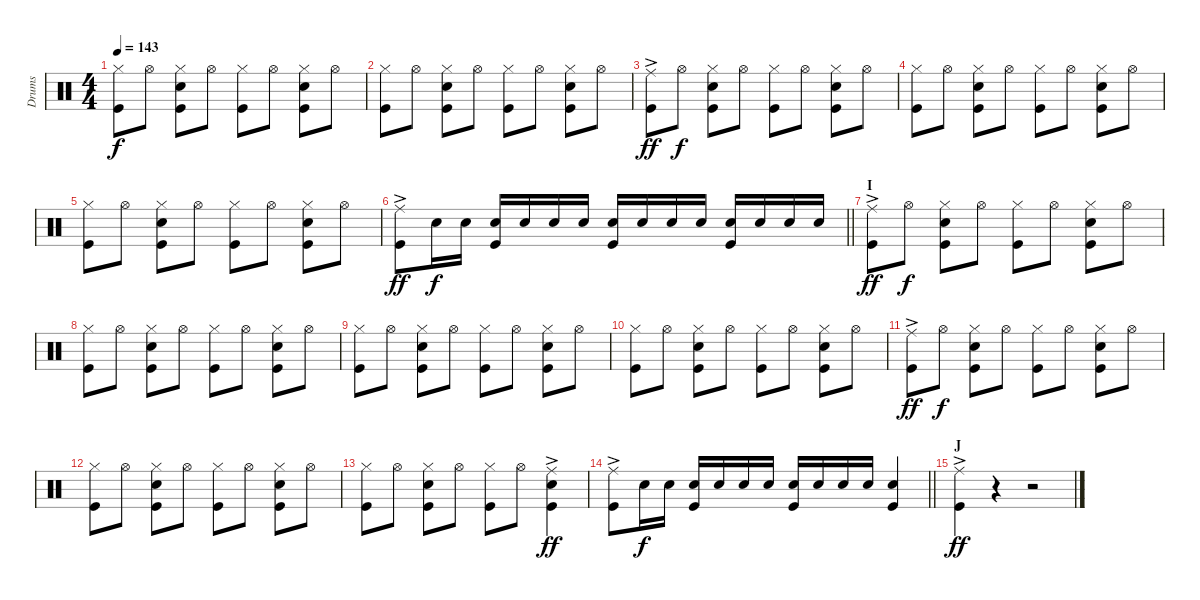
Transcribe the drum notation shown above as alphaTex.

\track ("Drums" "Drums") {instrument percussion}
\staff {score}
\articulation defaults
\ts (4 4)
\tempo 143
\clef neutral
\ks aminor
("Hi-Hat (closed)" "Kick (hit)").8{dy f} "Hi-Hat (open)".8 ("Hi-Hat (closed)" "Kick (hit)" "Snare (hit) 2").8 "Hi-Hat (open)".8 ("Hi-Hat (closed)" "Kick (hit)").8 "Hi-Hat (open)".8 ("Hi-Hat (closed)" "Kick (hit)" "Snare (hit) 2").8 "Hi-Hat (open)".8 |
("Hi-Hat (closed)" "Kick (hit)").8 "Hi-Hat (open)".8 ("Hi-Hat (closed)" "Kick (hit)" "Snare (hit) 2").8 "Hi-Hat (open)".8 ("Hi-Hat (closed)" "Kick (hit)").8 "Hi-Hat (open)".8 ("Hi-Hat (closed)" "Kick (hit)" "Snare (hit) 2").8 "Hi-Hat (open)".8 |
("Ride (middle)"{ac} "Kick (hit)").8{dy ff} "Hi-Hat (open)".8{dy f} ("Hi-Hat (closed)" "Kick (hit)" "Snare (hit) 2").8 "Hi-Hat (open)".8 ("Hi-Hat (closed)" "Kick (hit)").8 "Hi-Hat (open)".8 ("Hi-Hat (closed)" "Kick (hit)" "Snare (hit) 2").8 "Hi-Hat (open)".8 |
("Hi-Hat (closed)" "Kick (hit)").8 "Hi-Hat (open)".8 ("Hi-Hat (closed)" "Kick (hit)" "Snare (hit) 2").8 "Hi-Hat (open)".8 ("Hi-Hat (closed)" "Kick (hit)").8 "Hi-Hat (open)".8 ("Hi-Hat (closed)" "Kick (hit)" "Snare (hit) 2").8 "Hi-Hat (open)".8 |
("Hi-Hat (closed)" "Kick (hit)").8 "Hi-Hat (open)".8 ("Hi-Hat (closed)" "Kick (hit)" "Snare (hit) 2").8 "Hi-Hat (open)".8 ("Hi-Hat (closed)" "Kick (hit)").8 "Hi-Hat (open)".8 ("Hi-Hat (closed)" "Kick (hit)" "Snare (hit) 2").8 "Hi-Hat (open)".8 |
\barLineRight lightlight
("Ride (middle)"{ac} "Kick (hit)").8{dy ff} "Snare (hit) 2".16{dy f} "Snare (hit) 2".16 ("Kick (hit)" "Snare (hit) 2").16 "Snare (hit) 2".16 "Snare (hit) 2".16 "Snare (hit) 2".16 ("Kick (hit)" "Snare (hit) 2").16 "Snare (hit) 2".16 "Snare (hit) 2".16 "Snare (hit) 2".16 ("Kick (hit)" "Snare (hit) 2").16 "Snare (hit) 2".16 "Snare (hit) 2".16 "Snare (hit) 2".16 |
\section ("" "I")
("Ride (middle)"{ac} "Kick (hit)").8{dy ff} "Hi-Hat (open)".8{dy f} ("Hi-Hat (closed)" "Kick (hit)" "Snare (hit) 2").8 "Hi-Hat (open)".8 ("Hi-Hat (closed)" "Kick (hit)").8 "Hi-Hat (open)".8 ("Hi-Hat (closed)" "Kick (hit)" "Snare (hit) 2").8 "Hi-Hat (open)".8 |
("Hi-Hat (closed)" "Kick (hit)").8 "Hi-Hat (open)".8 ("Hi-Hat (closed)" "Kick (hit)" "Snare (hit) 2").8 "Hi-Hat (open)".8 ("Hi-Hat (closed)" "Kick (hit)").8 "Hi-Hat (open)".8 ("Hi-Hat (closed)" "Kick (hit)" "Snare (hit) 2").8 "Hi-Hat (open)".8 |
("Hi-Hat (closed)" "Kick (hit)").8 "Hi-Hat (open)".8 ("Hi-Hat (closed)" "Kick (hit)" "Snare (hit) 2").8 "Hi-Hat (open)".8 ("Hi-Hat (closed)" "Kick (hit)").8 "Hi-Hat (open)".8 ("Hi-Hat (closed)" "Kick (hit)" "Snare (hit) 2").8 "Hi-Hat (open)".8 |
("Hi-Hat (closed)" "Kick (hit)").8 "Hi-Hat (open)".8 ("Hi-Hat (closed)" "Kick (hit)" "Snare (hit) 2").8 "Hi-Hat (open)".8 ("Hi-Hat (closed)" "Kick (hit)").8 "Hi-Hat (open)".8 ("Hi-Hat (closed)" "Kick (hit)" "Snare (hit) 2").8 "Hi-Hat (open)".8 |
("Ride (middle)"{ac} "Kick (hit)").8{dy ff} "Hi-Hat (open)".8{dy f} ("Hi-Hat (closed)" "Kick (hit)" "Snare (hit) 2").8 "Hi-Hat (open)".8 ("Hi-Hat (closed)" "Kick (hit)").8 "Hi-Hat (open)".8 ("Hi-Hat (closed)" "Kick (hit)" "Snare (hit) 2").8 "Hi-Hat (open)".8 |
("Hi-Hat (closed)" "Kick (hit)").8 "Hi-Hat (open)".8 ("Hi-Hat (closed)" "Kick (hit)" "Snare (hit) 2").8 "Hi-Hat (open)".8 ("Hi-Hat (closed)" "Kick (hit)").8 "Hi-Hat (open)".8 ("Hi-Hat (closed)" "Kick (hit)" "Snare (hit) 2").8 "Hi-Hat (open)".8 |
("Hi-Hat (closed)" "Kick (hit)").8 "Hi-Hat (open)".8 ("Hi-Hat (closed)" "Kick (hit)" "Snare (hit) 2").8 "Hi-Hat (open)".8 ("Hi-Hat (closed)" "Kick (hit)").8 "Hi-Hat (open)".8 ("Ride (middle)"{ac} "Kick (hit)" "Snare (hit) 2").4{dy ff} |
\barLineRight lightlight
("Ride (middle)"{ac} "Kick (hit)").8 "Snare (hit) 2".16{dy f} "Snare (hit) 2".16 ("Kick (hit)" "Snare (hit) 2").16 "Snare (hit) 2".16 "Snare (hit) 2".16 "Snare (hit) 2".16 ("Kick (hit)" "Snare (hit) 2").16 "Snare (hit) 2".16 "Snare (hit) 2".16 "Snare (hit) 2".16 ("Kick (hit)" "Snare (hit) 2").4 |
\section ("" "J")
("Ride (middle)"{ac} "Kick (hit)").4{dy ff} r.4 r.2
